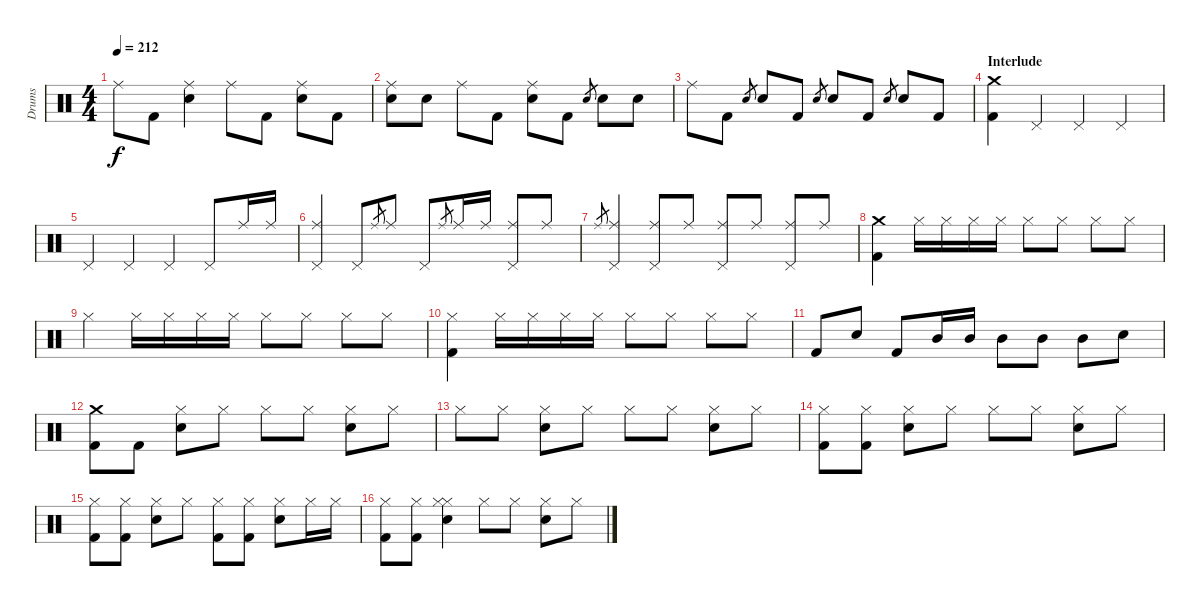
\track ("Drums" "Drums") {instrument percussion}
\staff {score}
\articulation defaults
\ts (4 4)
\tempo 212
\clef neutral
\ks c "Ride (middle)".8{dy f} "Kick (hit) 2".8
("Ride (middle)" "Electric Snare (hit)").4 "Ride (middle)".8 "Kick (hit) 2".8 ("Ride (middle)" "Electric Snare (hit)").8 "Kick (hit) 2".8 |
("Ride (middle)" "Electric Snare (hit)").8 "Electric Snare (hit)".8 "Ride (middle)".8 "Kick (hit) 2".8 ("Ride (middle)" "Electric Snare (hit)").8 "Kick (hit) 2".8 "Electric Snare (hit)".8{gr} "Electric Snare (hit)".8 "Electric Snare (hit)".8 |
"Ride (middle)".8 "Kick (hit) 2".8 "Electric Snare (hit)".8{gr} "Electric Snare (hit)".8 "Kick (hit) 2".8 "Electric Snare (hit)".8{gr} "Electric Snare (hit)".8 "Kick (hit) 2".8 "Electric Snare (hit)".8{gr} "Electric Snare (hit)".8 "Kick (hit) 2".8 |
\section ("" "Interlude")
("Crash medium (hit)" "Kick (hit) 2").4 "Pedal Hi-Hat (hit)".4 "Pedal Hi-Hat (hit)".4 "Pedal Hi-Hat (hit)".4 |
"Pedal Hi-Hat (hit)".4 "Pedal Hi-Hat (hit)".4 "Pedal Hi-Hat (hit)".4 "Pedal Hi-Hat (hit)".8 "Ride (middle)".16 "Ride (middle)".16 |
("Ride (middle)" "Pedal Hi-Hat (hit)").4 "Pedal Hi-Hat (hit)".8 "Ride (middle)".8{gr} "Ride (middle)".8 "Pedal Hi-Hat (hit)".8 "Ride (middle)".8{gr} "Ride (middle)".16 "Ride (middle)".16 ("Ride (middle)" "Pedal Hi-Hat (hit)").8 "Ride (middle)".8 |
"Ride (middle)".8{gr} ("Ride (middle)" "Pedal Hi-Hat (hit)").4 ("Ride (middle)" "Pedal Hi-Hat (hit)").8 "Ride (middle)".8 ("Ride (middle)" "Pedal Hi-Hat (hit)").8 "Ride (middle)".8 ("Ride (middle)" "Pedal Hi-Hat (hit)").8 "Ride (middle)".8 |
("Crash medium (hit)" "Kick (hit) 2").4 "Hi-Hat (closed)".16 "Hi-Hat (closed)".16 "Hi-Hat (closed)".16 "Hi-Hat (closed)".16 "Hi-Hat (closed)".8 "Hi-Hat (closed)".8 "Hi-Hat (closed)".8 "Hi-Hat (closed)".8 |
"Hi-Hat (closed)".4 "Hi-Hat (closed)".16 "Hi-Hat (closed)".16 "Hi-Hat (closed)".16 "Hi-Hat (closed)".16 "Hi-Hat (closed)".8 "Hi-Hat (closed)".8 "Hi-Hat (closed)".8 "Hi-Hat (closed)".8 |
("Hi-Hat (closed)" "Kick (hit) 2").4 "Hi-Hat (closed)".16 "Hi-Hat (closed)".16 "Hi-Hat (closed)".16 "Hi-Hat (closed)".16 "Hi-Hat (closed)".8 "Hi-Hat (closed)".8 "Hi-Hat (closed)".8 "Hi-Hat (closed)".8 |
"Kick (hit) 2".8 "Electric Snare (hit)".8 "Kick (hit) 2".8 "Mid Tom (hit)".16 "Mid Tom (hit)".16 "Mid Tom (hit)".8 "Mid Tom (hit)".8 "Mid Tom (hit)".8 "Electric Snare (hit)".8 |
("Crash medium (hit)" "Kick (hit) 2").8 "Kick (hit) 2".8 ("Hi-Hat (closed)" "Electric Snare (hit)").8 "Hi-Hat (closed)".8 "Hi-Hat (closed)".8 "Hi-Hat (closed)".8 ("Hi-Hat (closed)" "Electric Snare (hit)").8 "Hi-Hat (closed)".8 |
"Hi-Hat (closed)".8 "Hi-Hat (closed)".8 ("Hi-Hat (closed)" "Electric Snare (hit)").8 "Hi-Hat (closed)".8 "Hi-Hat (closed)".8 "Hi-Hat (closed)".8 ("Hi-Hat (closed)" "Electric Snare (hit)").8 "Hi-Hat (closed)".8 |
("Hi-Hat (closed)" "Kick (hit) 2").8 ("Hi-Hat (closed)" "Kick (hit) 2").8 ("Hi-Hat (closed)" "Electric Snare (hit)").8 "Hi-Hat (closed)".8 "Hi-Hat (closed)".8 "Hi-Hat (closed)".8 ("Hi-Hat (closed)" "Electric Snare (hit)").8 "Hi-Hat (closed)".8 |
("Hi-Hat (closed)" "Kick (hit) 2").8 ("Hi-Hat (closed)" "Kick (hit) 2").8 ("Hi-Hat (closed)" "Electric Snare (hit)").8 "Hi-Hat (closed)".8 ("Hi-Hat (closed)" "Kick (hit) 2").8 ("Hi-Hat (closed)" "Kick (hit) 2").8 ("Hi-Hat (closed)" "Electric Snare (hit)").8 "Hi-Hat (closed)".16 "Hi-Hat (closed)".16 |
("Hi-Hat (closed)" "Kick (hit) 2").8 ("Hi-Hat (closed)" "Kick (hit) 2").8 ("Hi-Hat (closed)" "Hi-Hat (closed)" "Electric Snare (hit)").4 "Hi-Hat (closed)".8 "Hi-Hat (closed)".8 ("Hi-Hat (closed)" "Electric Snare (hit)").8 "Hi-Hat (closed)".8
